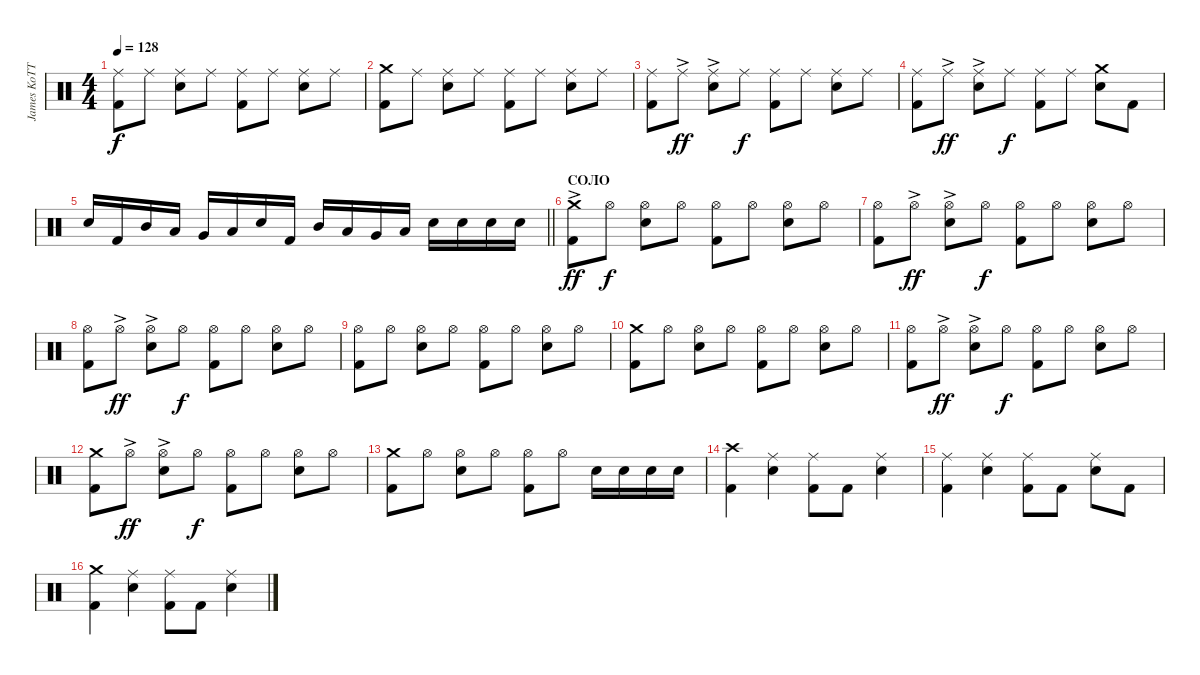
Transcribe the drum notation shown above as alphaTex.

\track ("James KoTTak" "James KoTT") {instrument percussion}
\staff {score}
\articulation defaults
\ts (4 4)
\tempo 128
\clef neutral
\ks c
("Kick (hit) 2" "Ride (middle)").8{dy f} "Ride (middle)".8 ("Ride (middle)" "Snare (hit) 2").8 "Ride (middle)".8 ("Ride (middle)" "Kick (hit) 2").8 "Ride (middle)".8 ("Ride (middle)" "Snare (hit) 2").8 "Ride (middle)".8 |
("Kick (hit) 2" "Crash medium (hit)").8 "Ride (middle)".8 ("Ride (middle)" "Snare (hit) 2").8 "Ride (middle)".8 ("Ride (middle)" "Kick (hit) 2").8 "Ride (middle)".8 ("Ride (middle)" "Snare (hit) 2").8 "Ride (middle)".8 |
("Kick (hit) 2" "Ride (middle)").8 "Ride (middle)"{ac}.8{dy ff} ("Ride (middle)"{ac} "Snare (hit) 2").8 "Ride (middle)".8{dy f} ("Ride (middle)" "Kick (hit) 2").8 "Ride (middle)".8 ("Ride (middle)" "Snare (hit) 2").8 "Ride (middle)".8 |
("Kick (hit) 2" "Ride (middle)").8 "Ride (middle)"{ac}.8{dy ff} ("Ride (middle)"{ac} "Snare (hit) 2").8 "Ride (middle)".8{dy f} ("Ride (middle)" "Kick (hit) 2").8 "Ride (middle)".8 ("Crash medium (hit)" "Snare (hit) 2").8 "Kick (hit) 2".8 |
\barLineRight lightlight "Snare (hit) 2".16 "Kick (hit) 2".16 "Mid Tom (hit)".16 "Low Tom (hit)".16 "Very Low Tom (hit)".16 "Low Floor Tom (hit)".16 "Snare (hit) 2".16 "Kick (hit) 2".16 "Mid Tom (hit)".16 "Low Tom (hit)".16 "Very Low Tom (hit)".16 "Low Floor Tom (hit)".16 "Snare (hit) 2".16 "Snare (hit) 2".16 "Snare (hit) 2".16 "Snare (hit) 2".16
|
\section ("" "СОЛО")
("Crash medium (hit)"{ac} "Kick (hit) 2").8{dy ff} "Hi-Hat (open)".8{dy f} ("Hi-Hat (open)" "Snare (hit) 2").8 "Hi-Hat (open)".8 ("Hi-Hat (open)" "Kick (hit) 2").8 "Hi-Hat (open)".8 ("Hi-Hat (open)" "Snare (hit) 2").8 "Hi-Hat (open)".8 |
("Kick (hit) 2" "Hi-Hat (open)").8 "Hi-Hat (open)"{ac}.8{dy ff} ("Hi-Hat (open)"{ac} "Snare (hit) 2").8 "Hi-Hat (open)".8{dy f} ("Hi-Hat (open)" "Kick (hit) 2").8 "Hi-Hat (open)".8 ("Hi-Hat (open)" "Snare (hit) 2").8 "Hi-Hat (open)".8 |
("Kick (hit) 2" "Hi-Hat (open)").8 "Hi-Hat (open)"{ac}.8{dy ff} ("Hi-Hat (open)"{ac} "Snare (hit) 2").8 "Hi-Hat (open)".8{dy f} ("Hi-Hat (open)" "Kick (hit) 2").8 "Hi-Hat (open)".8 ("Hi-Hat (open)" "Snare (hit) 2").8 "Hi-Hat (open)".8 |
("Kick (hit) 2" "Hi-Hat (open)").8 "Hi-Hat (open)".8 ("Hi-Hat (open)" "Snare (hit) 2").8 "Hi-Hat (open)".8 ("Hi-Hat (open)" "Kick (hit) 2").8 "Hi-Hat (open)".8 ("Hi-Hat (open)" "Snare (hit) 2").8 "Hi-Hat (open)".8 |
("Kick (hit) 2" "Crash medium (hit)").8 "Hi-Hat (open)".8 ("Hi-Hat (open)" "Snare (hit) 2").8 "Hi-Hat (open)".8 ("Hi-Hat (open)" "Kick (hit) 2").8 "Hi-Hat (open)".8 ("Hi-Hat (open)" "Snare (hit) 2").8 "Hi-Hat (open)".8 |
("Kick (hit) 2" "Hi-Hat (open)").8 "Hi-Hat (open)"{ac}.8{dy ff} ("Hi-Hat (open)"{ac} "Snare (hit) 2").8 "Hi-Hat (open)".8{dy f} ("Hi-Hat (open)" "Kick (hit) 2").8 "Hi-Hat (open)".8 ("Hi-Hat (open)" "Snare (hit) 2").8 "Hi-Hat (open)".8 |
("Kick (hit) 2" "Crash medium (hit)").8 "Hi-Hat (open)"{ac}.8{dy ff} ("Hi-Hat (open)"{ac} "Snare (hit) 2").8 "Hi-Hat (open)".8{dy f} ("Hi-Hat (open)" "Kick (hit) 2").8 "Hi-Hat (open)".8 ("Hi-Hat (open)" "Snare (hit) 2").8 "Hi-Hat (open)".8 |
("Kick (hit) 2" "Crash medium (hit)").8 "Hi-Hat (open)".8 ("Hi-Hat (open)" "Snare (hit) 2").8 "Hi-Hat (open)".8 ("Hi-Hat (open)" "Kick (hit) 2").8 "Hi-Hat (open)".8 "Snare (hit) 2".16 "Snare (hit) 2".16 "Snare (hit) 2".16 "Snare (hit) 2".16 |
("Crash high (hit)" "Kick (hit) 2").4 ("Ride (middle)" "Snare (hit) 2").4 ("Ride (middle)" "Kick (hit) 2").8 "Kick (hit) 2".8 ("Ride (middle)" "Snare (hit) 2").4 |
("Ride (middle)" "Kick (hit) 2").4 ("Ride (middle)" "Snare (hit) 2").4 ("Ride (middle)" "Kick (hit) 2").8 "Kick (hit) 2".8 ("Ride (middle)" "Snare (hit) 2").8 "Kick (hit) 2".8 |
("Crash medium (hit)" "Kick (hit) 2").4 ("Ride (middle)" "Snare (hit) 2").4 ("Ride (middle)" "Kick (hit) 2").8 "Kick (hit) 2".8 ("Ride (middle)" "Snare (hit) 2").4
